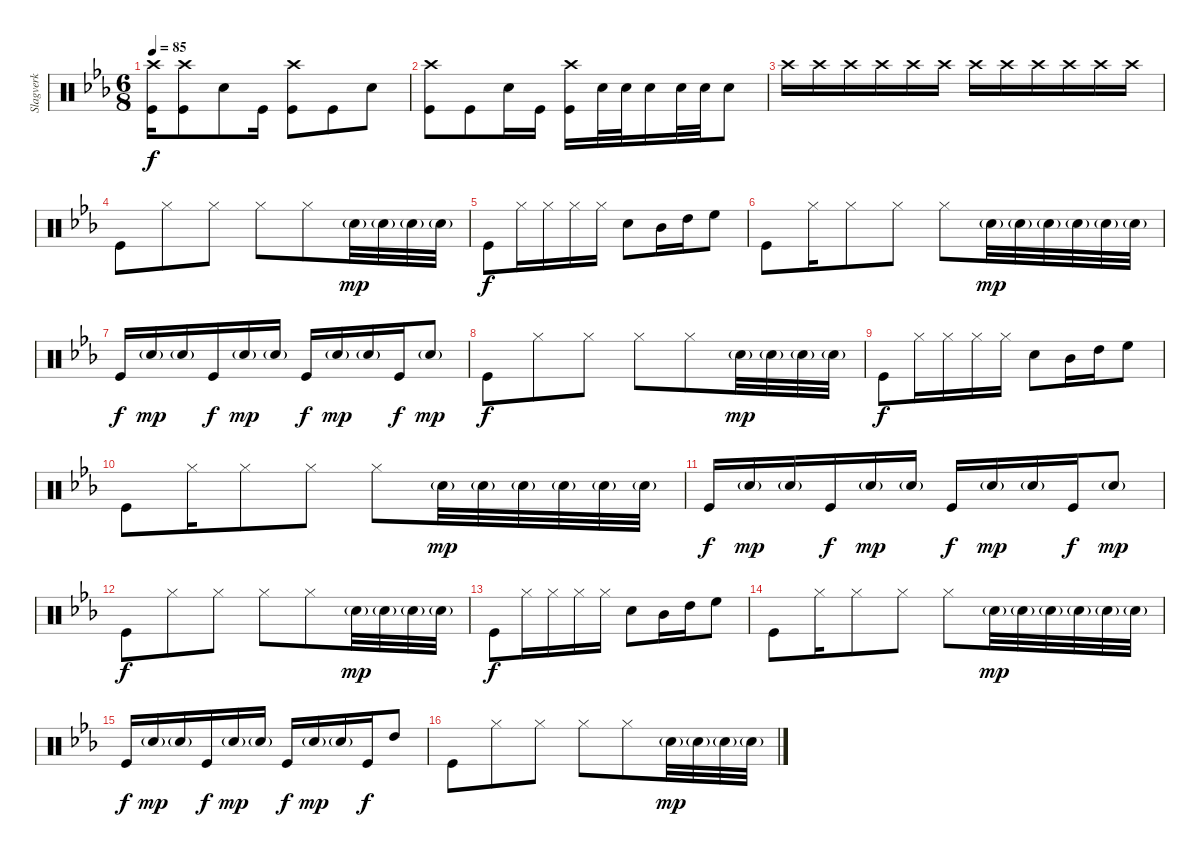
\track ("Slagverk" "Slagverk") {instrument percussion}
\staff {score}
\articulation defaults
\ts (6 8)
\tempo 85
\clef neutral
\ks eb
("Crash high (hit)" "Kick (hit)").16{dy f} ("Crash high (hit)" "Kick (hit)").8 "Snare (hit) 2".8 "Kick (hit)".16 ("Crash high (hit)" "Kick (hit)").8 "Kick (hit)".8 "Snare (hit) 2".8 |
("Crash high (hit)" "Kick (hit)").8 "Kick (hit)".8 "Snare (hit) 2".16 "Kick (hit)".16 ("Crash high (hit)" "Kick (hit)").16 "Snare (hit) 2".32 "Snare (hit) 2".32 "Snare (hit) 2".16 "Snare (hit) 2".32 "Snare (hit) 2".32 "Snare (hit) 2".8 |
"Crash high (hit)".16 "Crash high (hit)".16 "Crash high (hit)".16 "Crash high (hit)".16 "Crash high (hit)".16 "Crash high (hit)".16 "Crash high (hit)".16 "Crash high (hit)".16 "Crash high (hit)".16 "Crash high (hit)".16 "Crash high (hit)".16 "Crash high (hit)".16 |
"Kick (hit)".8 "Hi-Hat (closed)".8 "Hi-Hat (closed)".8 "Hi-Hat (closed)".8 "Hi-Hat (closed)".8 "Snare (hit) 2"{g}.32{dy mp} "Snare (hit) 2"{g}.32 "Snare (hit) 2"{g}.32 "Snare (hit) 2"{g}.32 |
"Kick (hit)".8{dy f} "Hi-Hat (closed)".16 "Hi-Hat (closed)".16 "Hi-Hat (closed)".16 "Hi-Hat (closed)".16 "Snare (hit) 2".8 "Mid Tom (hit)".16 "High Tom (hit)".16 "High Floor Tom (hit)".8 |
"Kick (hit)".8 "Hi-Hat (closed)".16 "Hi-Hat (closed)".8 "Hi-Hat (closed)".8 "Hi-Hat (closed)".8 "Snare (hit) 2"{g}.32{dy mp} "Snare (hit) 2"{g}.32 "Snare (hit) 2"{g}.32 "Snare (hit) 2"{g}.32 "Snare (hit) 2"{g}.32 "Snare (hit) 2"{g}.32 |
"Kick (hit)".16{dy f} "Snare (hit) 2"{g}.16{dy mp} "Snare (hit) 2"{g}.16 "Kick (hit)".16{dy f} "Snare (hit) 2"{g}.16{dy mp} "Snare (hit) 2"{g}.16 "Kick (hit)".16{dy f} "Snare (hit) 2"{g}.16{dy mp} "Snare (hit) 2"{g}.16 "Kick (hit)".16{dy f} "Snare (hit) 2"{g}.8{dy mp} |
"Kick (hit)".8{dy f} "Hi-Hat (closed)".8 "Hi-Hat (closed)".8 "Hi-Hat (closed)".8 "Hi-Hat (closed)".8 "Snare (hit) 2"{g}.32{dy mp} "Snare (hit) 2"{g}.32 "Snare (hit) 2"{g}.32 "Snare (hit) 2"{g}.32 |
"Kick (hit)".8{dy f} "Hi-Hat (closed)".16 "Hi-Hat (closed)".16 "Hi-Hat (closed)".16 "Hi-Hat (closed)".16 "Snare (hit) 2".8 "Mid Tom (hit)".16 "High Tom (hit)".16 "High Floor Tom (hit)".8 |
"Kick (hit)".8 "Hi-Hat (closed)".16 "Hi-Hat (closed)".8 "Hi-Hat (closed)".8 "Hi-Hat (closed)".8 "Snare (hit) 2"{g}.32{dy mp} "Snare (hit) 2"{g}.32 "Snare (hit) 2"{g}.32 "Snare (hit) 2"{g}.32 "Snare (hit) 2"{g}.32 "Snare (hit) 2"{g}.32 |
"Kick (hit)".16{dy f} "Snare (hit) 2"{g}.16{dy mp} "Snare (hit) 2"{g}.16 "Kick (hit)".16{dy f} "Snare (hit) 2"{g}.16{dy mp} "Snare (hit) 2"{g}.16 "Kick (hit)".16{dy f} "Snare (hit) 2"{g}.16{dy mp} "Snare (hit) 2"{g}.16 "Kick (hit)".16{dy f} "Snare (hit) 2"{g}.8{dy mp} |
"Kick (hit)".8{dy f} "Hi-Hat (closed)".8 "Hi-Hat (closed)".8 "Hi-Hat (closed)".8 "Hi-Hat (closed)".8 "Snare (hit) 2"{g}.32{dy mp} "Snare (hit) 2"{g}.32 "Snare (hit) 2"{g}.32 "Snare (hit) 2"{g}.32 |
"Kick (hit)".8{dy f} "Hi-Hat (closed)".16 "Hi-Hat (closed)".16 "Hi-Hat (closed)".16 "Hi-Hat (closed)".16 "Snare (hit) 2".8 "Mid Tom (hit)".16 "High Tom (hit)".16 "High Floor Tom (hit)".8 |
"Kick (hit)".8 "Hi-Hat (closed)".16 "Hi-Hat (closed)".8 "Hi-Hat (closed)".8 "Hi-Hat (closed)".8 "Snare (hit) 2"{g}.32{dy mp} "Snare (hit) 2"{g}.32 "Snare (hit) 2"{g}.32 "Snare (hit) 2"{g}.32 "Snare (hit) 2"{g}.32 "Snare (hit) 2"{g}.32 |
"Kick (hit)".16{dy f} "Snare (hit) 2"{g}.16{dy mp} "Snare (hit) 2"{g}.16 "Kick (hit)".16{dy f} "Snare (hit) 2"{g}.16{dy mp} "Snare (hit) 2"{g}.16 "Kick (hit)".16{dy f} "Snare (hit) 2"{g}.16{dy mp} "Snare (hit) 2"{g}.16 "Kick (hit)".16{dy f} "High Tom (hit)".8 |
"Kick (hit)".8 "Hi-Hat (closed)".8 "Hi-Hat (closed)".8 "Hi-Hat (closed)".8 "Hi-Hat (closed)".8 "Snare (hit) 2"{g}.32{dy mp} "Snare (hit) 2"{g}.32 "Snare (hit) 2"{g}.32 "Snare (hit) 2"{g}.32
